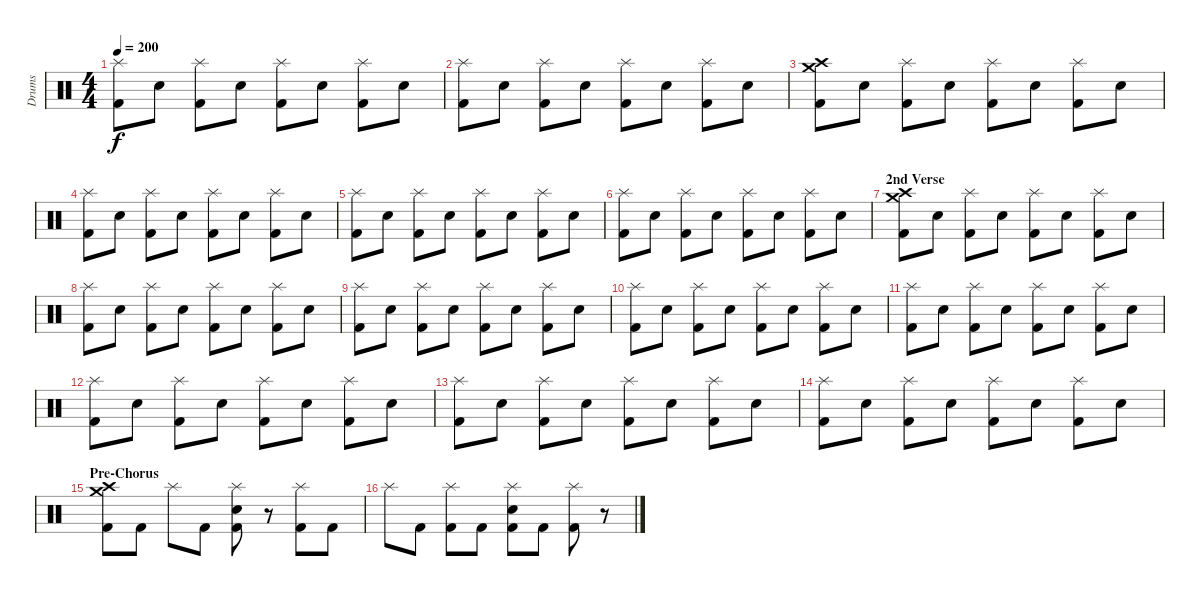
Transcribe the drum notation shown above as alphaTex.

\track ("Drums" "Drums") {instrument percussion}
\staff {score}
\articulation defaults
\ts (4 4)
\tempo 200
\clef neutral
\ks c
("Splash (hit)" "Kick (hit) 2").8{dy f} "Snare (hit) 2".8 ("Splash (hit)" "Kick (hit) 2").8 "Snare (hit) 2".8 ("Splash (hit)" "Kick (hit) 2").8 "Snare (hit) 2".8 ("Splash (hit)" "Kick (hit) 2").8 "Snare (hit) 2".8 |
("Splash (hit)" "Kick (hit) 2").8 "Snare (hit) 2".8 ("Splash (hit)" "Kick (hit) 2").8 "Snare (hit) 2".8 ("Splash (hit)" "Kick (hit) 2").8 "Snare (hit) 2".8 ("Splash (hit)" "Kick (hit) 2").8 "Snare (hit) 2".8 |
("Crash medium (hit)" "Crash high (hit)" "Kick (hit) 2").8 "Snare (hit) 2".8 ("Splash (hit)" "Kick (hit) 2").8 "Snare (hit) 2".8 ("Splash (hit)" "Kick (hit) 2").8 "Snare (hit) 2".8 ("Splash (hit)" "Kick (hit) 2").8 "Snare (hit) 2".8 |
("Splash (hit)" "Kick (hit) 2").8 "Snare (hit) 2".8 ("Splash (hit)" "Kick (hit) 2").8 "Snare (hit) 2".8 ("Splash (hit)" "Kick (hit) 2").8 "Snare (hit) 2".8 ("Splash (hit)" "Kick (hit) 2").8 "Snare (hit) 2".8 |
("Splash (hit)" "Kick (hit) 2").8 "Snare (hit) 2".8 ("Splash (hit)" "Kick (hit) 2").8 "Snare (hit) 2".8 ("Splash (hit)" "Kick (hit) 2").8 "Snare (hit) 2".8 ("Splash (hit)" "Kick (hit) 2").8 "Snare (hit) 2".8 |
("Splash (hit)" "Kick (hit) 2").8 "Snare (hit) 2".8 ("Splash (hit)" "Kick (hit) 2").8 "Snare (hit) 2".8 ("Splash (hit)" "Kick (hit) 2").8 "Snare (hit) 2".8 ("Splash (hit)" "Kick (hit) 2").8 "Snare (hit) 2".8 |
\section ("" "2nd Verse")
("Crash medium (hit)" "Crash high (hit)" "Kick (hit) 2").8 "Snare (hit) 2".8 ("Splash (hit)" "Kick (hit) 2").8 "Snare (hit) 2".8 ("Splash (hit)" "Kick (hit) 2").8 "Snare (hit) 2".8 ("Splash (hit)" "Kick (hit) 2").8 "Snare (hit) 2".8 |
("Splash (hit)" "Kick (hit) 2").8 "Snare (hit) 2".8 ("Splash (hit)" "Kick (hit) 2").8 "Snare (hit) 2".8 ("Splash (hit)" "Kick (hit) 2").8 "Snare (hit) 2".8 ("Splash (hit)" "Kick (hit) 2").8 "Snare (hit) 2".8 |
("Splash (hit)" "Kick (hit) 2").8 "Snare (hit) 2".8 ("Splash (hit)" "Kick (hit) 2").8 "Snare (hit) 2".8 ("Splash (hit)" "Kick (hit) 2").8 "Snare (hit) 2".8 ("Splash (hit)" "Kick (hit) 2").8 "Snare (hit) 2".8 |
("Splash (hit)" "Kick (hit) 2").8 "Snare (hit) 2".8 ("Splash (hit)" "Kick (hit) 2").8 "Snare (hit) 2".8 ("Splash (hit)" "Kick (hit) 2").8 "Snare (hit) 2".8 ("Splash (hit)" "Kick (hit) 2").8 "Snare (hit) 2".8 |
("Splash (hit)" "Kick (hit) 2").8 "Snare (hit) 2".8 ("Splash (hit)" "Kick (hit) 2").8 "Snare (hit) 2".8 ("Splash (hit)" "Kick (hit) 2").8 "Snare (hit) 2".8 ("Splash (hit)" "Kick (hit) 2").8 "Snare (hit) 2".8 |
("Splash (hit)" "Kick (hit) 2").8 "Snare (hit) 2".8 ("Splash (hit)" "Kick (hit) 2").8 "Snare (hit) 2".8 ("Splash (hit)" "Kick (hit) 2").8 "Snare (hit) 2".8 ("Splash (hit)" "Kick (hit) 2").8 "Snare (hit) 2".8 |
("Splash (hit)" "Kick (hit) 2").8 "Snare (hit) 2".8 ("Splash (hit)" "Kick (hit) 2").8 "Snare (hit) 2".8 ("Splash (hit)" "Kick (hit) 2").8 "Snare (hit) 2".8 ("Splash (hit)" "Kick (hit) 2").8 "Snare (hit) 2".8 |
("Splash (hit)" "Kick (hit) 2").8 "Snare (hit) 2".8 ("Splash (hit)" "Kick (hit) 2").8 "Snare (hit) 2".8 ("Splash (hit)" "Kick (hit) 2").8 "Snare (hit) 2".8 ("Splash (hit)" "Kick (hit) 2").8 "Snare (hit) 2".8 |
\section ("" "Pre-Chorus")
("Crash medium (hit)" "Crash high (hit)" "Kick (hit) 2").8 "Kick (hit) 2".8 "Splash (hit)".8 "Kick (hit) 2".8 ("Splash (hit)" "Snare (hit) 2" "Kick (hit) 2").8 r.8 ("Splash (hit)" "Kick (hit) 2").8 "Kick (hit) 2".8 |
"Splash (hit)".8 "Kick (hit) 2".8 ("Splash (hit)" "Kick (hit) 2").8 "Kick (hit) 2".8 ("Splash (hit)" "Snare (hit) 2" "Kick (hit) 2").8 "Kick (hit) 2".8 ("Splash (hit)" "Kick (hit) 2").8 r.8
